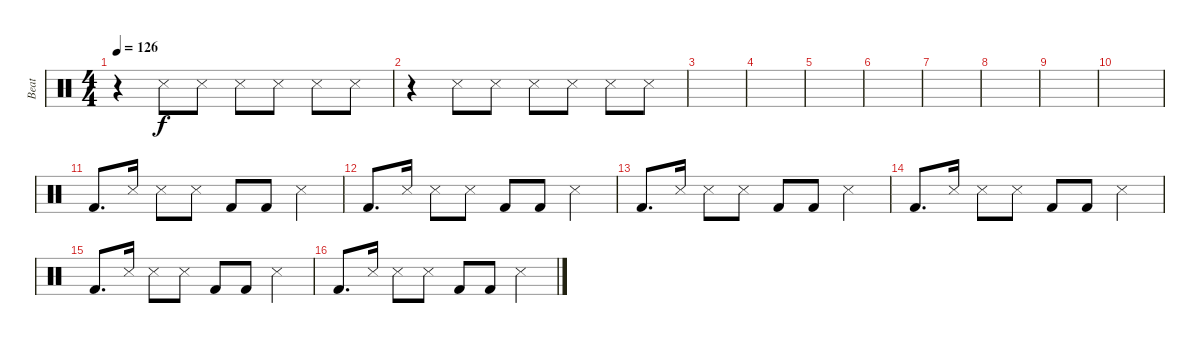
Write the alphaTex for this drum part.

\track ("Beat" "Beat") {instrument percussion}
\staff {score}
\articulation defaults
\ts (4 4)
\tempo 126
\clef neutral
\ks c
r.4{dy f} "Snare (side stick) 3".8 "Snare (side stick) 3".8 "Snare (side stick) 3".8 "Snare (side stick) 3".8 "Snare (side stick) 3".8 "Snare (side stick) 3".8 |
r.4 "Snare (side stick) 3".8 "Snare (side stick) 3".8 "Snare (side stick) 3".8 "Snare (side stick) 3".8 "Snare (side stick) 3".8 "Snare (side stick) 3".8 |
|
|
|
|
|
|
|
|
"Kick (hit) 2".8{d} "Snare (side stick) 3".16 "Snare (side stick) 3".8 "Snare (side stick) 3".8 "Kick (hit) 2".8 "Kick (hit) 2".8 "Snare (side stick) 3".4 |
"Kick (hit) 2".8{d} "Snare (side stick) 3".16 "Snare (side stick) 3".8 "Snare (side stick) 3".8 "Kick (hit) 2".8 "Kick (hit) 2".8 "Snare (side stick) 3".4 |
"Kick (hit) 2".8{d} "Snare (side stick) 3".16 "Snare (side stick) 3".8 "Snare (side stick) 3".8 "Kick (hit) 2".8 "Kick (hit) 2".8 "Snare (side stick) 3".4 |
"Kick (hit) 2".8{d} "Snare (side stick) 3".16 "Snare (side stick) 3".8 "Snare (side stick) 3".8 "Kick (hit) 2".8 "Kick (hit) 2".8 "Snare (side stick) 3".4 |
"Kick (hit) 2".8{d} "Snare (side stick) 3".16 "Snare (side stick) 3".8 "Snare (side stick) 3".8 "Kick (hit) 2".8 "Kick (hit) 2".8 "Snare (side stick) 3".4 |
"Kick (hit) 2".8{d} "Snare (side stick) 3".16 "Snare (side stick) 3".8 "Snare (side stick) 3".8 "Kick (hit) 2".8 "Kick (hit) 2".8 "Snare (side stick) 3".4
